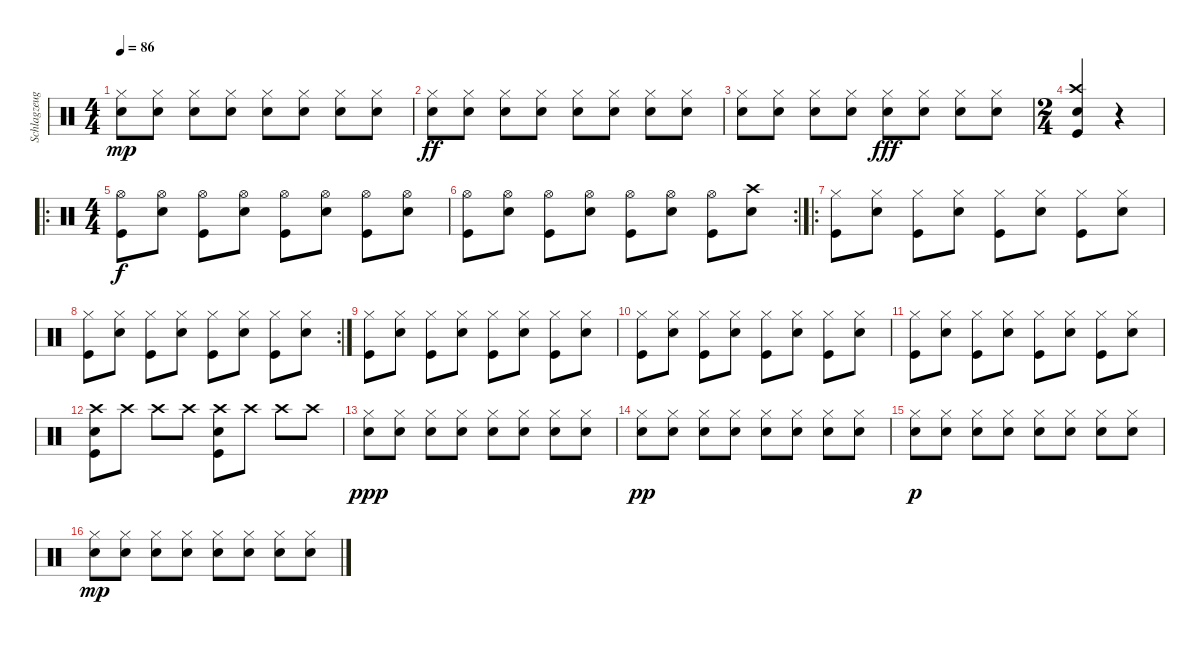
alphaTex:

\track ("Schlagzeug" "Schlagzeug") {instrument percussion}
\staff {score}
\articulation defaults
\ts (4 4)
\tempo 86
\clef neutral
\ks c
("Hi-Hat (closed)" "Snare (hit) 2").8{dy mp} ("Hi-Hat (closed)" "Snare (hit) 2").8 ("Hi-Hat (closed)" "Snare (hit) 2").8 ("Hi-Hat (closed)" "Snare (hit) 2").8 ("Hi-Hat (closed)" "Snare (hit) 2").8 ("Hi-Hat (closed)" "Snare (hit) 2").8 ("Hi-Hat (closed)" "Snare (hit) 2").8 ("Hi-Hat (closed)" "Snare (hit) 2").8 |
("Hi-Hat (closed)" "Snare (hit) 2").8{dy ff} ("Hi-Hat (closed)" "Snare (hit) 2").8 ("Hi-Hat (closed)" "Snare (hit) 2").8 ("Hi-Hat (closed)" "Snare (hit) 2").8 ("Hi-Hat (closed)" "Snare (hit) 2").8 ("Hi-Hat (closed)" "Snare (hit) 2").8 ("Hi-Hat (closed)" "Snare (hit) 2").8 ("Hi-Hat (closed)" "Snare (hit) 2").8 |
("Hi-Hat (closed)" "Snare (hit) 2").8 ("Hi-Hat (closed)" "Snare (hit) 2").8 ("Hi-Hat (closed)" "Snare (hit) 2").8 ("Hi-Hat (closed)" "Snare (hit) 2").8 ("Hi-Hat (closed)" "Snare (hit) 2").8{dy fff} ("Hi-Hat (closed)" "Snare (hit) 2").8 ("Hi-Hat (closed)" "Snare (hit) 2").8 ("Hi-Hat (closed)" "Snare (hit) 2").8 |
\ts (2 4)
("Crash high (hit)" "Snare (hit) 2" "Kick (hit)").4 r.4 |
\ro
\ts (4 4)
("Hi-Hat (open)" "Kick (hit)").8{dy f} ("Hi-Hat (open)" "Snare (hit) 2").8 ("Hi-Hat (open)" "Kick (hit)").8 ("Hi-Hat (open)" "Snare (hit) 2").8 ("Hi-Hat (open)" "Kick (hit)").8 ("Hi-Hat (open)" "Snare (hit) 2").8 ("Hi-Hat (open)" "Kick (hit)").8 ("Hi-Hat (open)" "Snare (hit) 2").8 |
\rc 2
("Hi-Hat (open)" "Kick (hit)").8 ("Hi-Hat (open)" "Snare (hit) 2").8 ("Hi-Hat (open)" "Kick (hit)").8 ("Hi-Hat (open)" "Snare (hit) 2").8 ("Hi-Hat (open)" "Kick (hit)").8 ("Hi-Hat (open)" "Snare (hit) 2").8 ("Hi-Hat (open)" "Kick (hit)").8 ("Crash high (hit)" "Snare (hit) 2").8 |
\ro
("Hi-Hat (closed)" "Kick (hit)").8 ("Hi-Hat (closed)" "Snare (hit) 2").8 ("Hi-Hat (closed)" "Kick (hit)").8 ("Hi-Hat (closed)" "Snare (hit) 2").8 ("Hi-Hat (closed)" "Kick (hit)").8 ("Hi-Hat (closed)" "Snare (hit) 2").8 ("Hi-Hat (closed)" "Kick (hit)").8 ("Hi-Hat (closed)" "Snare (hit) 2").8 |
\rc 2
("Hi-Hat (closed)" "Kick (hit)").8 ("Hi-Hat (closed)" "Snare (hit) 2").8 ("Hi-Hat (closed)" "Kick (hit)").8 ("Hi-Hat (closed)" "Snare (hit) 2").8 ("Hi-Hat (closed)" "Kick (hit)").8 ("Hi-Hat (closed)" "Snare (hit) 2").8 ("Hi-Hat (closed)" "Kick (hit)").8 ("Hi-Hat (closed)" "Snare (hit) 2").8 |
("Hi-Hat (closed)" "Kick (hit)").8 ("Hi-Hat (closed)" "Snare (hit) 2").8 ("Hi-Hat (closed)" "Kick (hit)").8 ("Hi-Hat (closed)" "Snare (hit) 2").8 ("Hi-Hat (closed)" "Kick (hit)").8 ("Hi-Hat (closed)" "Snare (hit) 2").8 ("Hi-Hat (closed)" "Kick (hit)").8 ("Hi-Hat (closed)" "Snare (hit) 2").8 |
("Hi-Hat (closed)" "Kick (hit)").8 ("Hi-Hat (closed)" "Snare (hit) 2").8 ("Hi-Hat (closed)" "Kick (hit)").8 ("Hi-Hat (closed)" "Snare (hit) 2").8 ("Hi-Hat (closed)" "Kick (hit)").8 ("Hi-Hat (closed)" "Snare (hit) 2").8 ("Hi-Hat (closed)" "Kick (hit)").8 ("Hi-Hat (closed)" "Snare (hit) 2").8 |
("Hi-Hat (closed)" "Kick (hit)").8 ("Hi-Hat (closed)" "Snare (hit) 2").8 ("Hi-Hat (closed)" "Kick (hit)").8 ("Hi-Hat (closed)" "Snare (hit) 2").8 ("Hi-Hat (closed)" "Kick (hit)").8 ("Hi-Hat (closed)" "Snare (hit) 2").8 ("Hi-Hat (closed)" "Kick (hit)").8 ("Hi-Hat (closed)" "Snare (hit) 2").8 |
("Crash high (hit)" "Snare (hit) 2" "Kick (hit)").8 "Crash high (hit)".8 "Crash high (hit)".8 "Crash high (hit)".8 ("Crash high (hit)" "Snare (hit) 2" "Kick (hit)").8 "Crash high (hit)".8 "Crash high (hit)".8 "Crash high (hit)".8 |
("Hi-Hat (closed)" "Snare (hit) 2").8{dy ppp} ("Hi-Hat (closed)" "Snare (hit) 2").8 ("Hi-Hat (closed)" "Snare (hit) 2").8 ("Hi-Hat (closed)" "Snare (hit) 2").8 ("Hi-Hat (closed)" "Snare (hit) 2").8 ("Hi-Hat (closed)" "Snare (hit) 2").8 ("Hi-Hat (closed)" "Snare (hit) 2").8 ("Hi-Hat (closed)" "Snare (hit) 2").8 |
("Hi-Hat (closed)" "Snare (hit) 2").8{dy pp} ("Hi-Hat (closed)" "Snare (hit) 2").8 ("Hi-Hat (closed)" "Snare (hit) 2").8 ("Hi-Hat (closed)" "Snare (hit) 2").8 ("Hi-Hat (closed)" "Snare (hit) 2").8 ("Hi-Hat (closed)" "Snare (hit) 2").8 ("Hi-Hat (closed)" "Snare (hit) 2").8 ("Hi-Hat (closed)" "Snare (hit) 2").8 |
("Hi-Hat (closed)" "Snare (hit) 2").8{dy p} ("Hi-Hat (closed)" "Snare (hit) 2").8 ("Hi-Hat (closed)" "Snare (hit) 2").8 ("Hi-Hat (closed)" "Snare (hit) 2").8 ("Hi-Hat (closed)" "Snare (hit) 2").8 ("Hi-Hat (closed)" "Snare (hit) 2").8 ("Hi-Hat (closed)" "Snare (hit) 2").8 ("Hi-Hat (closed)" "Snare (hit) 2").8 |
("Hi-Hat (closed)" "Snare (hit) 2").8{dy mp} ("Hi-Hat (closed)" "Snare (hit) 2").8 ("Hi-Hat (closed)" "Snare (hit) 2").8 ("Hi-Hat (closed)" "Snare (hit) 2").8 ("Hi-Hat (closed)" "Snare (hit) 2").8 ("Hi-Hat (closed)" "Snare (hit) 2").8 ("Hi-Hat (closed)" "Snare (hit) 2").8 ("Hi-Hat (closed)" "Snare (hit) 2").8
